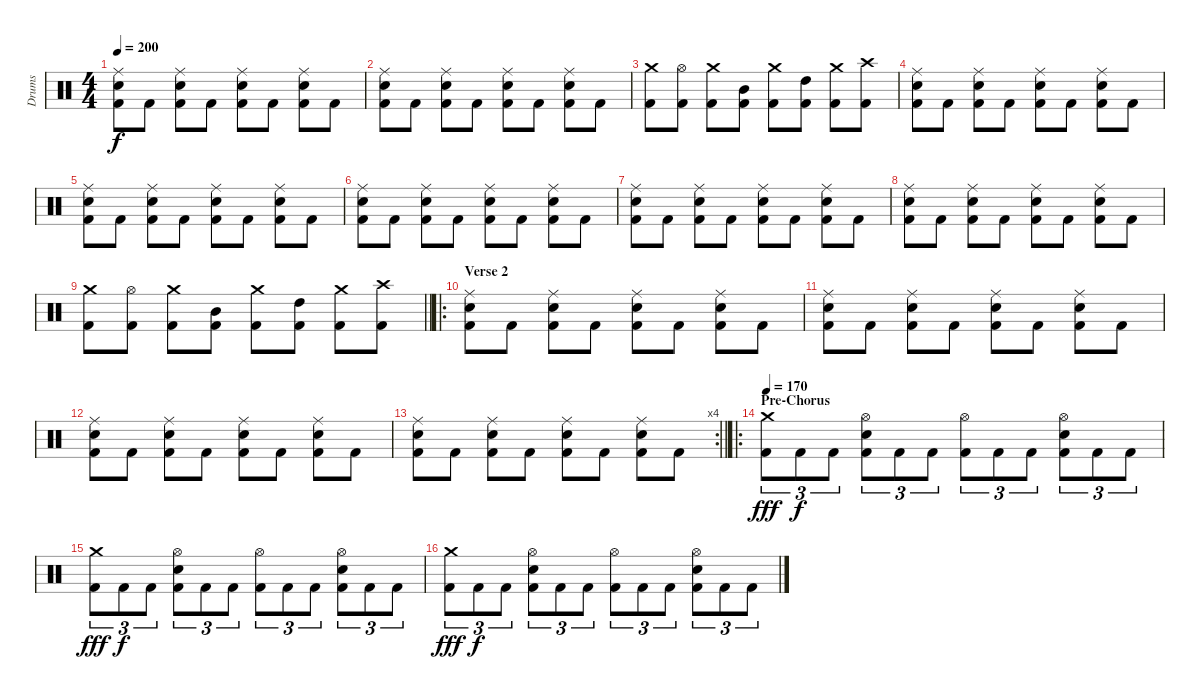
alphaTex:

\track ("Drums" "Drums") {instrument percussion}
\staff {score}
\articulation defaults
\ts (4 4)
\tempo 200
\clef neutral
\ks c
("Ride (middle)" "Snare (hit) 2" "Kick (hit) 2").8{dy f} "Kick (hit) 2".8 ("Ride (middle)" "Snare (hit) 2" "Kick (hit) 2").8 "Kick (hit) 2".8 ("Ride (middle)" "Snare (hit) 2" "Kick (hit) 2").8 "Kick (hit) 2".8 ("Ride (middle)" "Snare (hit) 2" "Kick (hit) 2").8 "Kick (hit) 2".8 |
("Ride (middle)" "Snare (hit) 2" "Kick (hit) 2").8 "Kick (hit) 2".8 ("Ride (middle)" "Snare (hit) 2" "Kick (hit) 2").8 "Kick (hit) 2".8 ("Ride (middle)" "Snare (hit) 2" "Kick (hit) 2").8 "Kick (hit) 2".8 ("Ride (middle)" "Snare (hit) 2" "Kick (hit) 2").8 "Kick (hit) 2".8 |
("Crash medium (hit)" "Kick (hit) 2").8 ("Hi-Hat (open)" "Kick (hit) 2").8 ("Crash medium (hit)" "Kick (hit) 2").8 ("Mid Tom (hit)" "Kick (hit) 2").8 ("Crash medium (hit)" "Kick (hit) 2").8 ("High Tom (hit)" "Kick (hit) 2").8 ("Crash medium (hit)" "Kick (hit) 2").8 ("Crash high (hit)" "Kick (hit) 2").8 |
("Ride (middle)" "Snare (hit) 2" "Kick (hit) 2").8 "Kick (hit) 2".8 ("Ride (middle)" "Snare (hit) 2" "Kick (hit) 2").8 "Kick (hit) 2".8 ("Ride (middle)" "Snare (hit) 2" "Kick (hit) 2").8 "Kick (hit) 2".8 ("Ride (middle)" "Snare (hit) 2" "Kick (hit) 2").8 "Kick (hit) 2".8 |
("Ride (middle)" "Snare (hit) 2" "Kick (hit) 2").8 "Kick (hit) 2".8 ("Ride (middle)" "Snare (hit) 2" "Kick (hit) 2").8 "Kick (hit) 2".8 ("Ride (middle)" "Snare (hit) 2" "Kick (hit) 2").8 "Kick (hit) 2".8 ("Ride (middle)" "Snare (hit) 2" "Kick (hit) 2").8 "Kick (hit) 2".8 |
("Ride (middle)" "Snare (hit) 2" "Kick (hit) 2").8 "Kick (hit) 2".8 ("Ride (middle)" "Snare (hit) 2" "Kick (hit) 2").8 "Kick (hit) 2".8 ("Ride (middle)" "Snare (hit) 2" "Kick (hit) 2").8 "Kick (hit) 2".8 ("Ride (middle)" "Snare (hit) 2" "Kick (hit) 2").8 "Kick (hit) 2".8 |
("Ride (middle)" "Snare (hit) 2" "Kick (hit) 2").8 "Kick (hit) 2".8 ("Ride (middle)" "Snare (hit) 2" "Kick (hit) 2").8 "Kick (hit) 2".8 ("Ride (middle)" "Snare (hit) 2" "Kick (hit) 2").8 "Kick (hit) 2".8 ("Ride (middle)" "Snare (hit) 2" "Kick (hit) 2").8 "Kick (hit) 2".8 |
("Ride (middle)" "Snare (hit) 2" "Kick (hit) 2").8 "Kick (hit) 2".8 ("Ride (middle)" "Snare (hit) 2" "Kick (hit) 2").8 "Kick (hit) 2".8 ("Ride (middle)" "Snare (hit) 2" "Kick (hit) 2").8 "Kick (hit) 2".8 ("Ride (middle)" "Snare (hit) 2" "Kick (hit) 2").8 "Kick (hit) 2".8 |
\barLineRight lightlight
("Crash medium (hit)" "Kick (hit) 2").8 ("Hi-Hat (open)" "Kick (hit) 2").8 ("Crash medium (hit)" "Kick (hit) 2").8 ("Mid Tom (hit)" "Kick (hit) 2").8 ("Crash medium (hit)" "Kick (hit) 2").8 ("High Tom (hit)" "Kick (hit) 2").8 ("Crash medium (hit)" "Kick (hit) 2").8 ("Crash high (hit)" "Kick (hit) 2").8 |
\ro
\section ("" "Verse 2")
("Ride (middle)" "Snare (hit) 2" "Kick (hit) 2").8 "Kick (hit) 2".8 ("Ride (middle)" "Snare (hit) 2" "Kick (hit) 2").8 "Kick (hit) 2".8 ("Ride (middle)" "Snare (hit) 2" "Kick (hit) 2").8 "Kick (hit) 2".8 ("Ride (middle)" "Snare (hit) 2" "Kick (hit) 2").8 "Kick (hit) 2".8 |
("Ride (middle)" "Snare (hit) 2" "Kick (hit) 2").8 "Kick (hit) 2".8 ("Ride (middle)" "Snare (hit) 2" "Kick (hit) 2").8 "Kick (hit) 2".8 ("Ride (middle)" "Snare (hit) 2" "Kick (hit) 2").8 "Kick (hit) 2".8 ("Ride (middle)" "Snare (hit) 2" "Kick (hit) 2").8 "Kick (hit) 2".8 |
("Ride (middle)" "Snare (hit) 2" "Kick (hit) 2").8 "Kick (hit) 2".8 ("Ride (middle)" "Snare (hit) 2" "Kick (hit) 2").8 "Kick (hit) 2".8 ("Ride (middle)" "Snare (hit) 2" "Kick (hit) 2").8 "Kick (hit) 2".8 ("Ride (middle)" "Snare (hit) 2" "Kick (hit) 2").8 "Kick (hit) 2".8 |
\rc 4
\barLineRight lightlight
("Ride (middle)" "Snare (hit) 2" "Kick (hit) 2").8 "Kick (hit) 2".8 ("Ride (middle)" "Snare (hit) 2" "Kick (hit) 2").8 "Kick (hit) 2".8 ("Ride (middle)" "Snare (hit) 2" "Kick (hit) 2").8 "Kick (hit) 2".8 ("Ride (middle)" "Snare (hit) 2" "Kick (hit) 2").8 "Kick (hit) 2".8 |
\ro
\section ("" "Pre-Chorus")
\tempo 170
("Crash medium (hit)" "Kick (hit) 2").8{tu (3 2) dy fff} "Kick (hit) 2".8{tu (3 2) dy f} "Kick (hit) 2".8{tu (3 2)} ("Hi-Hat (open)" "Snare (hit) 2" "Kick (hit) 2").8{tu (3 2)} "Kick (hit) 2".8{tu (3 2)} "Kick (hit) 2".8{tu (3 2)} ("Hi-Hat (open)" "Kick (hit) 2").8{tu (3 2)} "Kick (hit) 2".8{tu (3 2)} "Kick (hit) 2".8{tu (3 2)} ("Hi-Hat (open)" "Snare (hit) 2" "Kick (hit) 2").8{tu (3 2)} "Kick (hit) 2".8{tu (3 2)} "Kick (hit) 2".8{tu (3 2)} |
("Crash medium (hit)" "Kick (hit) 2").8{tu (3 2) dy fff} "Kick (hit) 2".8{tu (3 2) dy f} "Kick (hit) 2".8{tu (3 2)} ("Hi-Hat (open)" "Snare (hit) 2" "Kick (hit) 2").8{tu (3 2)} "Kick (hit) 2".8{tu (3 2)} "Kick (hit) 2".8{tu (3 2)} ("Hi-Hat (open)" "Kick (hit) 2").8{tu (3 2)} "Kick (hit) 2".8{tu (3 2)} "Kick (hit) 2".8{tu (3 2)} ("Hi-Hat (open)" "Snare (hit) 2" "Kick (hit) 2").8{tu (3 2)} "Kick (hit) 2".8{tu (3 2)} "Kick (hit) 2".8{tu (3 2)} |
("Crash medium (hit)" "Kick (hit) 2").8{tu (3 2) dy fff} "Kick (hit) 2".8{tu (3 2) dy f} "Kick (hit) 2".8{tu (3 2)} ("Hi-Hat (open)" "Snare (hit) 2" "Kick (hit) 2").8{tu (3 2)} "Kick (hit) 2".8{tu (3 2)} "Kick (hit) 2".8{tu (3 2)} ("Hi-Hat (open)" "Kick (hit) 2").8{tu (3 2)} "Kick (hit) 2".8{tu (3 2)} "Kick (hit) 2".8{tu (3 2)} ("Hi-Hat (open)" "Snare (hit) 2" "Kick (hit) 2").8{tu (3 2)} "Kick (hit) 2".8{tu (3 2)} "Kick (hit) 2".8{tu (3 2)}
